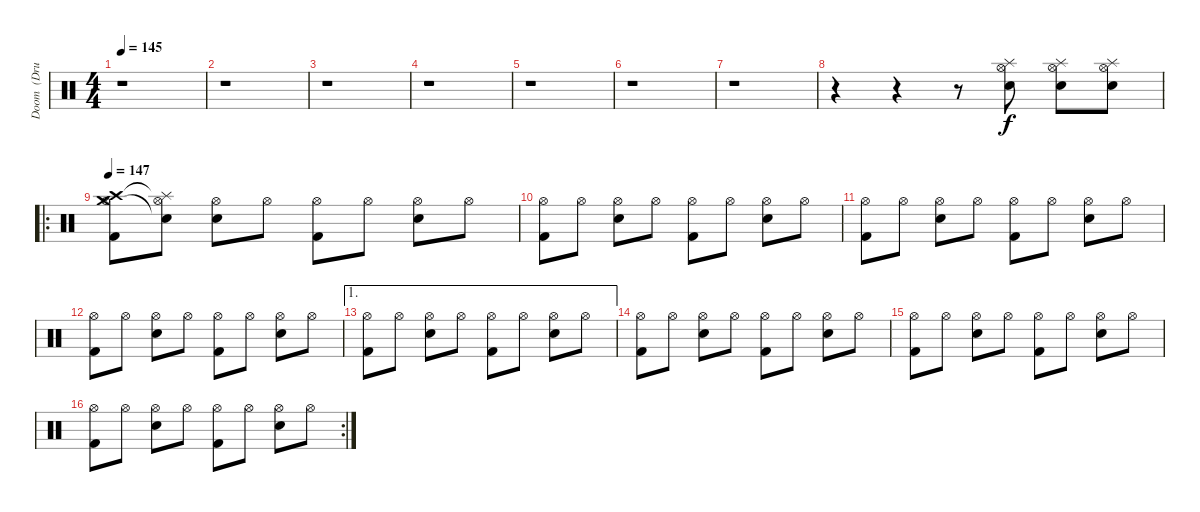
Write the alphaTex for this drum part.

\track ("Doom  (Drums)" "Doom  (Dru") {instrument percussion}
\staff {score}
\articulation defaults
\ts (4 4)
\tempo 145
\clef neutral
\ks c
r.1{dy f} |
r.1 |
r.1 |
r.1 |
r.1 |
r.1 |
r.1 |
r.4 r.4 r.8 ("Hi-Hat (open)" "Splash (hit)" "Electric Snare (hit)").8 ("Hi-Hat (open)" "Splash (hit)" "Electric Snare (hit)").8 ("Hi-Hat (open)" "Splash (hit)" "Electric Snare (hit)").8 |
\ro
\tempo 147
("Crash high (hit)" "Hi-Hat (open)" "Crash medium (hit)" "Kick (hit) 2").8 ("Splash (hit)"{t} "Hi-Hat (open)" "Snare (hit)"{t}).8 ("Hi-Hat (open)" "Electric Snare (hit)").8 "Hi-Hat (open)".8 ("Hi-Hat (open)" "Kick (hit) 2").8 "Hi-Hat (open)".8 ("Hi-Hat (open)" "Electric Snare (hit)").8 "Hi-Hat (open)".8 |
("Hi-Hat (open)" "Kick (hit) 2").8 "Hi-Hat (open)".8 ("Hi-Hat (open)" "Electric Snare (hit)").8 "Hi-Hat (open)".8 ("Hi-Hat (open)" "Kick (hit) 2").8 "Hi-Hat (open)".8 ("Hi-Hat (open)" "Electric Snare (hit)").8 "Hi-Hat (open)".8 |
("Hi-Hat (open)" "Kick (hit) 2").8 "Hi-Hat (open)".8 ("Hi-Hat (open)" "Electric Snare (hit)").8 "Hi-Hat (open)".8 ("Hi-Hat (open)" "Kick (hit) 2").8 "Hi-Hat (open)".8 ("Hi-Hat (open)" "Electric Snare (hit)").8 "Hi-Hat (open)".8 |
("Hi-Hat (open)" "Kick (hit) 2").8 "Hi-Hat (open)".8 ("Hi-Hat (open)" "Electric Snare (hit)").8 "Hi-Hat (open)".8 ("Hi-Hat (open)" "Kick (hit) 2").8 "Hi-Hat (open)".8 ("Hi-Hat (open)" "Electric Snare (hit)").8 "Hi-Hat (open)".8 |
\ae 1
("Hi-Hat (open)" "Kick (hit) 2").8 "Hi-Hat (open)".8 ("Hi-Hat (open)" "Electric Snare (hit)").8 "Hi-Hat (open)".8 ("Hi-Hat (open)" "Kick (hit) 2").8 "Hi-Hat (open)".8 ("Hi-Hat (open)" "Electric Snare (hit)").8 "Hi-Hat (open)".8 |
("Hi-Hat (open)" "Kick (hit) 2").8 "Hi-Hat (open)".8 ("Hi-Hat (open)" "Electric Snare (hit)").8 "Hi-Hat (open)".8 ("Hi-Hat (open)" "Kick (hit) 2").8 "Hi-Hat (open)".8 ("Hi-Hat (open)" "Electric Snare (hit)").8 "Hi-Hat (open)".8 |
("Hi-Hat (open)" "Kick (hit) 2").8 "Hi-Hat (open)".8 ("Hi-Hat (open)" "Electric Snare (hit)").8 "Hi-Hat (open)".8 ("Hi-Hat (open)" "Kick (hit) 2").8 "Hi-Hat (open)".8 ("Hi-Hat (open)" "Electric Snare (hit)").8 "Hi-Hat (open)".8 |
\rc 2
("Hi-Hat (open)" "Kick (hit) 2").8 "Hi-Hat (open)".8 ("Hi-Hat (open)" "Electric Snare (hit)").8 "Hi-Hat (open)".8 ("Hi-Hat (open)" "Kick (hit) 2").8 "Hi-Hat (open)".8 ("Hi-Hat (open)" "Electric Snare (hit)").8 "Hi-Hat (open)".8
